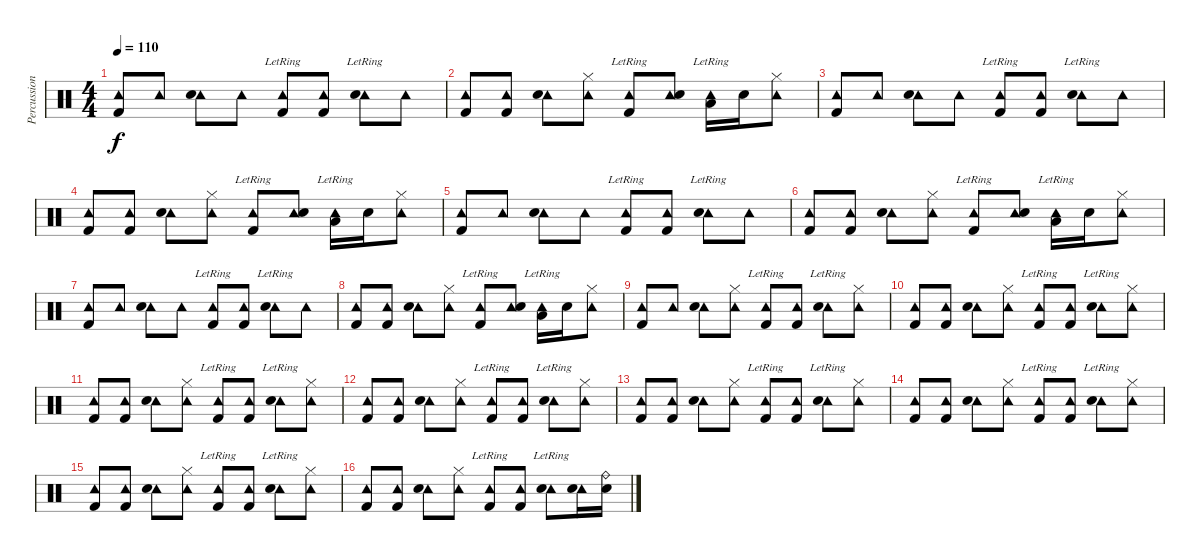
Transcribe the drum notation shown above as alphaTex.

\track ("Percussion" "Percussion") {instrument percussion}
\staff {score}
\articulation defaults
\ts (4 4)
\tempo 110
\clef neutral
\ks c
("Tambourine (hit)" "Kick (hit) 2").8{dy f} "Tambourine (hit)".8 ("Tambourine (hit)" "Electric Snare (hit)").8 "Tambourine (hit)".8 ("Tambourine (hit)"{lr} "Kick (hit) 2").8 ("Tambourine (hit)" "Kick (hit) 2").8 ("Tambourine (hit)"{lr} "Electric Snare (hit)").8 "Tambourine (hit)".8 |
("Tambourine (hit)" "Kick (hit) 2").8 ("Tambourine (hit)" "Kick (hit) 2").8 ("Tambourine (hit)" "Electric Snare (hit)").8 ("Tambourine (hit)" "Hi-Hat (closed)").8 ("Tambourine (hit)"{lr} "Kick (hit) 2").8 ("Tambourine (hit)" "Electric Snare (hit)").8 ("Tambourine (hit)"{lr} "Low Tom (hit)").16 "Electric Snare (hit)".16 ("Tambourine (hit)" "Hi-Hat (closed)").8 |
("Tambourine (hit)" "Kick (hit) 2").8 "Tambourine (hit)".8 ("Tambourine (hit)" "Electric Snare (hit)").8 "Tambourine (hit)".8 ("Tambourine (hit)"{lr} "Kick (hit) 2").8 ("Tambourine (hit)" "Kick (hit) 2").8 ("Tambourine (hit)"{lr} "Electric Snare (hit)").8 "Tambourine (hit)".8 |
("Tambourine (hit)" "Kick (hit) 2").8 ("Tambourine (hit)" "Kick (hit) 2").8 ("Tambourine (hit)" "Electric Snare (hit)").8 ("Tambourine (hit)" "Hi-Hat (closed)").8 ("Tambourine (hit)"{lr} "Kick (hit) 2").8 ("Tambourine (hit)" "Electric Snare (hit)").8 ("Tambourine (hit)"{lr} "Low Tom (hit)").16 "Electric Snare (hit)".16 ("Tambourine (hit)" "Hi-Hat (closed)").8 |
("Tambourine (hit)" "Kick (hit) 2").8 "Tambourine (hit)".8 ("Tambourine (hit)" "Electric Snare (hit)").8 "Tambourine (hit)".8 ("Tambourine (hit)"{lr} "Kick (hit) 2").8 ("Tambourine (hit)" "Kick (hit) 2").8 ("Tambourine (hit)"{lr} "Electric Snare (hit)").8 "Tambourine (hit)".8 |
("Tambourine (hit)" "Kick (hit) 2").8 ("Tambourine (hit)" "Kick (hit) 2").8 ("Tambourine (hit)" "Electric Snare (hit)").8 ("Tambourine (hit)" "Hi-Hat (closed)").8 ("Tambourine (hit)"{lr} "Kick (hit) 2").8 ("Tambourine (hit)" "Electric Snare (hit)").8 ("Tambourine (hit)"{lr} "Low Tom (hit)").16 "Electric Snare (hit)".16 ("Tambourine (hit)" "Hi-Hat (closed)").8 |
("Tambourine (hit)" "Kick (hit) 2").8 "Tambourine (hit)".8 ("Tambourine (hit)" "Electric Snare (hit)").8 "Tambourine (hit)".8 ("Tambourine (hit)"{lr} "Kick (hit) 2").8 ("Tambourine (hit)" "Kick (hit) 2").8 ("Tambourine (hit)"{lr} "Electric Snare (hit)").8 "Tambourine (hit)".8 |
("Tambourine (hit)" "Kick (hit) 2").8 ("Tambourine (hit)" "Kick (hit) 2").8 ("Tambourine (hit)" "Electric Snare (hit)").8 ("Tambourine (hit)" "Hi-Hat (closed)").8 ("Tambourine (hit)"{lr} "Kick (hit) 2").8 ("Tambourine (hit)" "Electric Snare (hit)").8 ("Tambourine (hit)"{lr} "Low Tom (hit)").16 "Electric Snare (hit)".16 ("Tambourine (hit)" "Hi-Hat (closed)").8 |
("Tambourine (hit)" "Kick (hit) 2").8 "Tambourine (hit)".8 ("Tambourine (hit)" "Electric Snare (hit)").8 ("Tambourine (hit)" "Hi-Hat (closed)").8 ("Tambourine (hit)"{lr} "Kick (hit) 2").8 ("Tambourine (hit)" "Kick (hit) 2").8 ("Tambourine (hit)"{lr} "Electric Snare (hit)").8 ("Tambourine (hit)" "Hi-Hat (closed)").8 |
("Tambourine (hit)" "Kick (hit) 2").8 ("Tambourine (hit)" "Kick (hit) 2").8 ("Tambourine (hit)" "Electric Snare (hit)").8 ("Tambourine (hit)" "Hi-Hat (closed)").8 ("Tambourine (hit)"{lr} "Kick (hit) 2").8 ("Tambourine (hit)" "Kick (hit) 2").8 ("Tambourine (hit)"{lr} "Electric Snare (hit)").8 ("Tambourine (hit)" "Hi-Hat (closed)").8 |
("Tambourine (hit)" "Kick (hit) 2").8 ("Tambourine (hit)" "Kick (hit) 2").8 ("Tambourine (hit)" "Electric Snare (hit)").8 ("Tambourine (hit)" "Hi-Hat (closed)").8 ("Tambourine (hit)"{lr} "Kick (hit) 2").8 ("Tambourine (hit)" "Kick (hit) 2").8 ("Tambourine (hit)"{lr} "Electric Snare (hit)").8 ("Tambourine (hit)" "Hi-Hat (closed)").8 |
("Tambourine (hit)" "Kick (hit) 2").8 ("Tambourine (hit)" "Kick (hit) 2").8 ("Tambourine (hit)" "Electric Snare (hit)").8 ("Tambourine (hit)" "Hi-Hat (closed)").8 ("Tambourine (hit)"{lr} "Kick (hit) 2").8 ("Tambourine (hit)" "Kick (hit) 2").8 ("Tambourine (hit)"{lr} "Electric Snare (hit)").8 ("Tambourine (hit)" "Hi-Hat (closed)").8 |
("Tambourine (hit)" "Kick (hit) 2").8 ("Tambourine (hit)" "Kick (hit) 2").8 ("Tambourine (hit)" "Electric Snare (hit)").8 ("Tambourine (hit)" "Hi-Hat (closed)").8 ("Tambourine (hit)"{lr} "Kick (hit) 2").8 ("Tambourine (hit)" "Kick (hit) 2").8 ("Tambourine (hit)"{lr} "Electric Snare (hit)").8 ("Tambourine (hit)" "Hi-Hat (closed)").8 |
("Tambourine (hit)" "Kick (hit) 2").8 ("Tambourine (hit)" "Kick (hit) 2").8 ("Tambourine (hit)" "Electric Snare (hit)").8 ("Tambourine (hit)" "Hi-Hat (closed)").8 ("Tambourine (hit)"{lr} "Kick (hit) 2").8 ("Tambourine (hit)" "Kick (hit) 2").8 ("Tambourine (hit)"{lr} "Electric Snare (hit)").8 ("Tambourine (hit)" "Hi-Hat (closed)").8 |
("Tambourine (hit)" "Kick (hit) 2").8 ("Tambourine (hit)" "Kick (hit) 2").8 ("Tambourine (hit)" "Electric Snare (hit)").8 ("Tambourine (hit)" "Hi-Hat (closed)").8 ("Tambourine (hit)"{lr} "Kick (hit) 2").8 ("Tambourine (hit)" "Kick (hit) 2").8 ("Tambourine (hit)"{lr} "Electric Snare (hit)").8 ("Tambourine (hit)" "Hi-Hat (closed)").8 |
("Tambourine (hit)" "Kick (hit) 2").8 ("Tambourine (hit)" "Kick (hit) 2").8 ("Tambourine (hit)" "Electric Snare (hit)").8 ("Tambourine (hit)" "Hi-Hat (closed)").8 ("Tambourine (hit)"{lr} "Kick (hit) 2").8 ("Tambourine (hit)" "Kick (hit) 2").8 ("Tambourine (hit)"{lr} "Electric Snare (hit)").8 ("Tambourine (hit)" "Electric Snare (hit)").16 ("Ride (bell)" "Electric Snare (hit)").16
